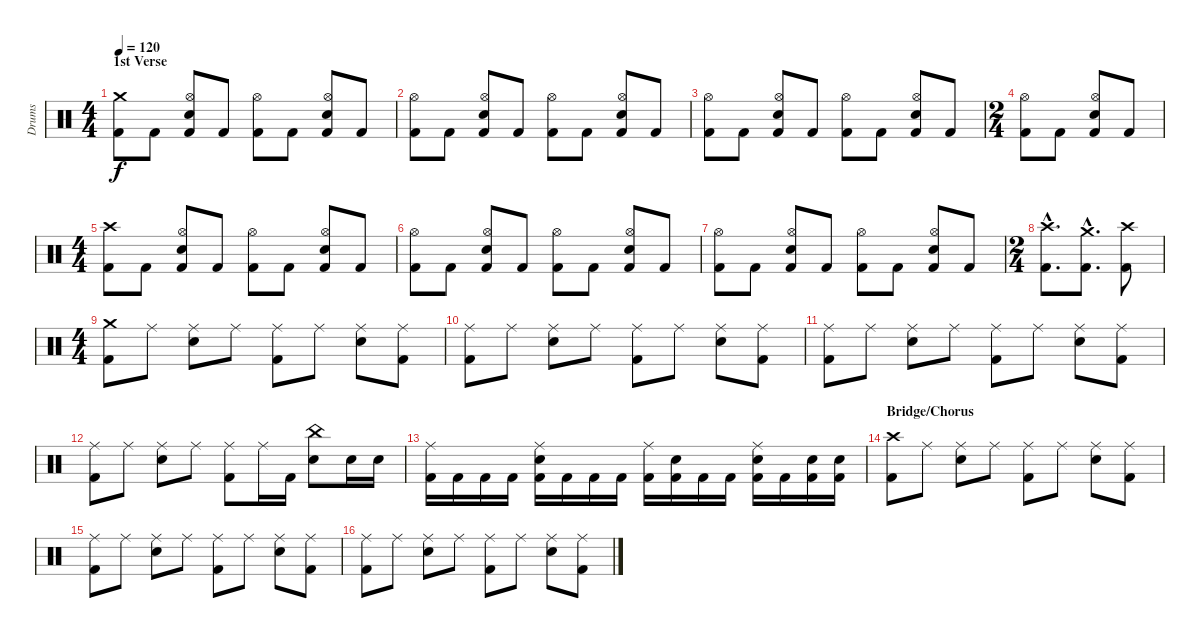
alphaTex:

\track ("Drums" "Drums") {instrument percussion}
\staff {score}
\articulation defaults
\ts (4 4)
\section ("" "1st Verse")
\tempo 120
\clef neutral
\ks c
("Crash medium (hit)" "Kick (hit) 2").8{dy f} "Kick (hit) 2".8 ("Hi-Hat (open)" "Snare (hit) 2" "Kick (hit) 2").8 "Kick (hit) 2".8 ("Hi-Hat (open)" "Kick (hit) 2").8 "Kick (hit) 2".8 ("Hi-Hat (open)" "Snare (hit) 2" "Kick (hit) 2").8 "Kick (hit) 2".8 |
("Hi-Hat (open)" "Kick (hit) 2").8 "Kick (hit) 2".8 ("Hi-Hat (open)" "Snare (hit) 2" "Kick (hit) 2").8 "Kick (hit) 2".8 ("Hi-Hat (open)" "Kick (hit) 2").8 "Kick (hit) 2".8 ("Hi-Hat (open)" "Snare (hit) 2" "Kick (hit) 2").8 "Kick (hit) 2".8 |
("Hi-Hat (open)" "Kick (hit) 2").8 "Kick (hit) 2".8 ("Hi-Hat (open)" "Snare (hit) 2" "Kick (hit) 2").8 "Kick (hit) 2".8 ("Hi-Hat (open)" "Kick (hit) 2").8 "Kick (hit) 2".8 ("Hi-Hat (open)" "Snare (hit) 2" "Kick (hit) 2").8 "Kick (hit) 2".8 |
\ts (2 4)
("Hi-Hat (open)" "Kick (hit) 2").8 "Kick (hit) 2".8 ("Hi-Hat (open)" "Snare (hit) 2" "Kick (hit) 2").8 "Kick (hit) 2".8 |
\ts (4 4)
("Crash high (hit)" "Kick (hit) 2").8 "Kick (hit) 2".8 ("Hi-Hat (open)" "Snare (hit) 2" "Kick (hit) 2").8 "Kick (hit) 2".8 ("Hi-Hat (open)" "Kick (hit) 2").8 "Kick (hit) 2".8 ("Hi-Hat (open)" "Snare (hit) 2" "Kick (hit) 2").8 "Kick (hit) 2".8 |
("Hi-Hat (open)" "Kick (hit) 2").8 "Kick (hit) 2".8 ("Hi-Hat (open)" "Snare (hit) 2" "Kick (hit) 2").8 "Kick (hit) 2".8 ("Hi-Hat (open)" "Kick (hit) 2").8 "Kick (hit) 2".8 ("Hi-Hat (open)" "Snare (hit) 2" "Kick (hit) 2").8 "Kick (hit) 2".8 |
("Hi-Hat (open)" "Kick (hit) 2").8 "Kick (hit) 2".8 ("Hi-Hat (open)" "Snare (hit) 2" "Kick (hit) 2").8 "Kick (hit) 2".8 ("Hi-Hat (open)" "Kick (hit) 2").8 "Kick (hit) 2".8 ("Hi-Hat (open)" "Snare (hit) 2" "Kick (hit) 2").8 "Kick (hit) 2".8 |
\ts (2 4)
("Crash high (hit)"{hac} "Kick (hit) 2"{hac}).8{d} ("Crash medium (hit)"{hac} "Kick (hit) 2"{hac}).8{d} ("Crash high (hit)" "Kick (hit) 2").8 |
\ts (4 4)
("Crash medium (hit)" "Kick (hit) 2").8 "Ride (middle)".8 ("Ride (middle)" "Snare (hit) 2").8 "Ride (middle)".8 ("Ride (middle)" "Kick (hit) 2").8 "Ride (middle)".8 ("Ride (middle)" "Snare (hit) 2").8 ("Ride (middle)" "Kick (hit) 2").8 |
("Ride (middle)" "Kick (hit) 2").8 "Ride (middle)".8 ("Ride (middle)" "Snare (hit) 2").8 "Ride (middle)".8 ("Ride (middle)" "Kick (hit) 2").8 "Ride (middle)".8 ("Ride (middle)" "Snare (hit) 2").8 ("Ride (middle)" "Kick (hit) 2").8 |
("Ride (middle)" "Kick (hit) 2").8 "Ride (middle)".8 ("Ride (middle)" "Snare (hit) 2").8 "Ride (middle)".8 ("Ride (middle)" "Kick (hit) 2").8 "Ride (middle)".8 ("Ride (middle)" "Snare (hit) 2").8 ("Ride (middle)" "Kick (hit) 2").8 |
("Ride (middle)" "Kick (hit) 2").8 "Ride (middle)".8 ("Ride (middle)" "Snare (hit) 2").8 "Ride (middle)".8 ("Ride (middle)" "Kick (hit) 2").8 "Ride (middle)".16 "Kick (hit) 2".16 ("China (hit)" "Snare (hit) 2").8 "Snare (hit) 2".16 "Snare (hit) 2".16 |
("Ride (middle)" "Kick (hit) 2").16 "Kick (hit) 2".16 "Kick (hit) 2".16 "Kick (hit) 2".16 ("Ride (middle)" "Snare (hit) 2" "Kick (hit) 2").16 "Kick (hit) 2".16 "Kick (hit) 2".16 "Kick (hit) 2".16 ("Ride (middle)" "Kick (hit) 2").16 ("Snare (hit) 2" "Kick (hit) 2").16 "Kick (hit) 2".16 "Kick (hit) 2".16 ("Ride (middle)" "Snare (hit) 2" "Kick (hit) 2").16 "Kick (hit) 2".16 ("Snare (hit) 2" "Kick (hit) 2").16 ("Snare (hit) 2" "Kick (hit) 2").16 |
\section ("" "Bridge/Chorus")
("Crash high (hit)" "Kick (hit) 2").8 "Ride (middle)".8 ("Ride (middle)" "Snare (hit) 2").8 "Ride (middle)".8 ("Ride (middle)" "Kick (hit) 2").8 "Ride (middle)".8 ("Ride (middle)" "Snare (hit) 2").8 ("Ride (middle)" "Kick (hit) 2").8 |
("Ride (middle)" "Kick (hit) 2").8 "Ride (middle)".8 ("Ride (middle)" "Snare (hit) 2").8 "Ride (middle)".8 ("Ride (middle)" "Kick (hit) 2").8 "Ride (middle)".8 ("Ride (middle)" "Snare (hit) 2").8 ("Ride (middle)" "Kick (hit) 2").8 |
("Ride (middle)" "Kick (hit) 2").8 "Ride (middle)".8 ("Ride (middle)" "Snare (hit) 2").8 "Ride (middle)".8 ("Ride (middle)" "Kick (hit) 2").8 "Ride (middle)".8 ("Ride (middle)" "Snare (hit) 2").8 ("Ride (middle)" "Kick (hit) 2").8
